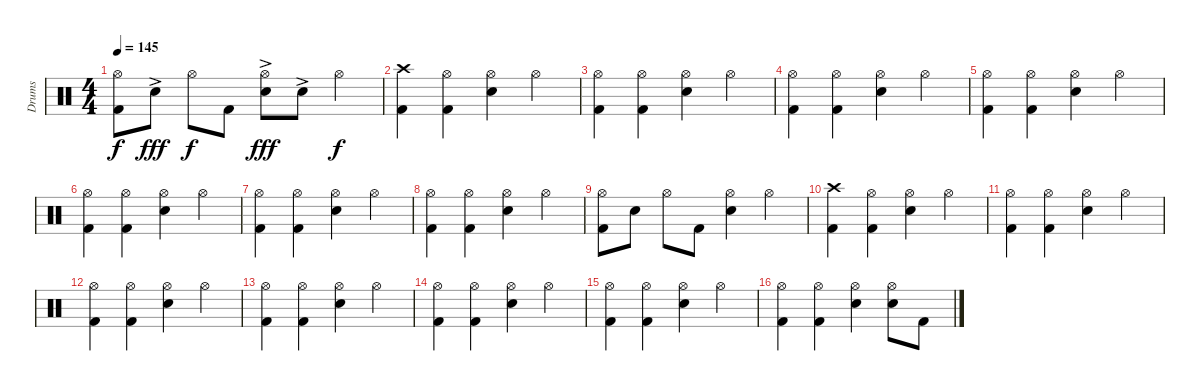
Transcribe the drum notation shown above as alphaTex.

\track ("Drums" "Drums") {instrument percussion}
\staff {score}
\articulation defaults
\ts (4 4)
\tempo 145
\clef neutral
\ks c
("Kick (hit) 2" "Hi-Hat (open)").8{dy f} "Snare (hit) 2"{ac}.8{dy fff} "Hi-Hat (open)".8{dy f} "Kick (hit) 2".8 ("Snare (hit) 2"{ac} "Hi-Hat (open)").8{dy fff} "Snare (hit) 2"{ac}.8 "Hi-Hat (open)".4{dy f} |
("Crash high (hit)" "Kick (hit) 2").4{volume 12} ("Kick (hit) 2" "Hi-Hat (open)").4 ("Snare (hit) 2" "Hi-Hat (open)").4 "Hi-Hat (open)".4 |
("Kick (hit) 2" "Hi-Hat (open)").4 ("Kick (hit) 2" "Hi-Hat (open)").4 ("Snare (hit) 2" "Hi-Hat (open)").4 "Hi-Hat (open)".4 |
("Kick (hit) 2" "Hi-Hat (open)").4 ("Kick (hit) 2" "Hi-Hat (open)").4 ("Snare (hit) 2" "Hi-Hat (open)").4 "Hi-Hat (open)".4 |
("Kick (hit) 2" "Hi-Hat (open)").4 ("Kick (hit) 2" "Hi-Hat (open)").4 ("Snare (hit) 2" "Hi-Hat (open)").4 "Hi-Hat (open)".4 |
("Kick (hit) 2" "Hi-Hat (open)").4 ("Kick (hit) 2" "Hi-Hat (open)").4 ("Snare (hit) 2" "Hi-Hat (open)").4 "Hi-Hat (open)".4 |
("Kick (hit) 2" "Hi-Hat (open)").4 ("Kick (hit) 2" "Hi-Hat (open)").4 ("Snare (hit) 2" "Hi-Hat (open)").4 "Hi-Hat (open)".4 |
("Kick (hit) 2" "Hi-Hat (open)").4 ("Kick (hit) 2" "Hi-Hat (open)").4 ("Snare (hit) 2" "Hi-Hat (open)").4 "Hi-Hat (open)".4 |
("Kick (hit) 2" "Hi-Hat (open)").8 "Snare (hit) 2".8 "Hi-Hat (open)".8 "Kick (hit) 2".8 ("Snare (hit) 2" "Hi-Hat (open)").4 "Hi-Hat (open)".4 |
("Crash high (hit)" "Kick (hit) 2").4 ("Kick (hit) 2" "Hi-Hat (open)").4 ("Snare (hit) 2" "Hi-Hat (open)").4 "Hi-Hat (open)".4 |
("Kick (hit) 2" "Hi-Hat (open)").4 ("Kick (hit) 2" "Hi-Hat (open)").4 ("Snare (hit) 2" "Hi-Hat (open)").4 "Hi-Hat (open)".4 |
("Kick (hit) 2" "Hi-Hat (open)").4 ("Kick (hit) 2" "Hi-Hat (open)").4 ("Snare (hit) 2" "Hi-Hat (open)").4 "Hi-Hat (open)".4 |
("Kick (hit) 2" "Hi-Hat (open)").4 ("Kick (hit) 2" "Hi-Hat (open)").4 ("Snare (hit) 2" "Hi-Hat (open)").4 "Hi-Hat (open)".4 |
("Kick (hit) 2" "Hi-Hat (open)").4 ("Kick (hit) 2" "Hi-Hat (open)").4 ("Snare (hit) 2" "Hi-Hat (open)").4 "Hi-Hat (open)".4 |
("Kick (hit) 2" "Hi-Hat (open)").4 ("Kick (hit) 2" "Hi-Hat (open)").4 ("Snare (hit) 2" "Hi-Hat (open)").4 "Hi-Hat (open)".4 |
("Kick (hit) 2" "Hi-Hat (open)").4 ("Kick (hit) 2" "Hi-Hat (open)").4 ("Snare (hit) 2" "Hi-Hat (open)").4 ("Snare (hit) 2" "Hi-Hat (open)").8 "Kick (hit) 2".8
